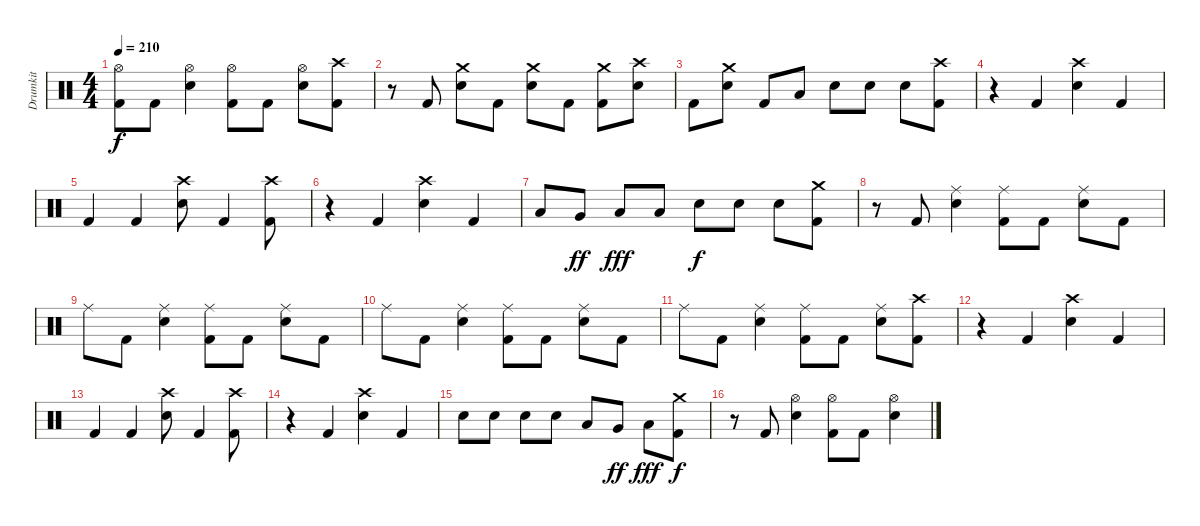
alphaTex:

\track ("Drumkit" "Drumkit") {instrument percussion}
\staff {score}
\articulation defaults
\ts (4 4)
\tempo 210
\clef neutral
\ks c
("Hi-Hat (open)" "Kick (hit) 2").8{dy f} "Kick (hit) 2".8 ("Hi-Hat (open)" "Electric Snare (hit)").4 ("Hi-Hat (open)" "Kick (hit) 2").8 "Kick (hit) 2".8 ("Hi-Hat (open)" "Electric Snare (hit)").8 ("Crash high (hit)" "Kick (hit) 2").8 |
r.8 "Kick (hit) 2".8 ("Crash medium (hit)" "Electric Snare (hit)").8 "Kick (hit) 2".8 ("Crash medium (hit)" "Electric Snare (hit)").8 "Kick (hit) 2".8 ("Crash medium (hit)" "Kick (hit) 2").8 ("Crash high (hit)" "Electric Snare (hit)").8 |
"Kick (hit) 2".8 ("Crash medium (hit)" "Electric Snare (hit)").8 "Kick (hit) 2".8 "Low Tom (hit)".8 "Electric Snare (hit)".8 "Electric Snare (hit)".8 "Electric Snare (hit)".8 ("Crash high (hit)" "Kick (hit) 2").8 |
r.4 "Kick (hit) 2".4 ("Crash high (hit)" "Electric Snare (hit)").4 "Kick (hit) 2".4 |
"Kick (hit) 2".4 "Kick (hit) 2".4 ("Crash high (hit)" "Electric Snare (hit)").8 "Kick (hit) 2".4 ("Crash high (hit)" "Kick (hit) 2").8 |
r.4 "Kick (hit) 2".4 ("Crash high (hit)" "Electric Snare (hit)").4 "Kick (hit) 2".4 |
"Low Tom (hit)".8 "Very Low Tom (hit)".8{dy ff} "Low Floor Tom (hit)".8{dy fff} "Low Floor Tom (hit)".8 "Electric Snare (hit)".8{dy f} "Electric Snare (hit)".8 "Electric Snare (hit)".8 ("Crash medium (hit)" "Kick (hit) 2").8 |
r.8 "Kick (hit) 2".8 ("Ride (middle)" "Electric Snare (hit)").4 ("Ride (middle)" "Kick (hit) 2").8 "Kick (hit) 2".8 ("Ride (middle)" "Electric Snare (hit)").8 "Kick (hit) 2".8 |
"Ride (middle)".8 "Kick (hit) 2".8 ("Ride (middle)" "Electric Snare (hit)").4 ("Ride (middle)" "Kick (hit) 2").8 "Kick (hit) 2".8 ("Ride (middle)" "Electric Snare (hit)").8 "Kick (hit) 2".8 |
"Ride (middle)".8 "Kick (hit) 2".8 ("Ride (middle)" "Electric Snare (hit)").4 ("Ride (middle)" "Kick (hit) 2").8 "Kick (hit) 2".8 ("Ride (middle)" "Electric Snare (hit)").8 "Kick (hit) 2".8 |
"Ride (middle)".8 "Kick (hit) 2".8 ("Ride (middle)" "Electric Snare (hit)").4 ("Ride (middle)" "Kick (hit) 2").8 "Kick (hit) 2".8 ("Ride (middle)" "Electric Snare (hit)").8 ("Crash high (hit)" "Kick (hit) 2").8 |
r.4 "Kick (hit) 2".4 ("Crash high (hit)" "Electric Snare (hit)").4 "Kick (hit) 2".4 |
"Kick (hit) 2".4 "Kick (hit) 2".4 ("Crash high (hit)" "Electric Snare (hit)").8 "Kick (hit) 2".4 ("Crash high (hit)" "Kick (hit) 2").8 |
r.4 "Kick (hit) 2".4 ("Crash high (hit)" "Electric Snare (hit)").4 "Kick (hit) 2".4 |
"Electric Snare (hit)".8 "Electric Snare (hit)".8 "Electric Snare (hit)".8 "Electric Snare (hit)".8 "Low Tom (hit)".8 "Very Low Tom (hit)".8{dy ff} "Low Floor Tom (hit)".8{dy fff} ("Crash medium (hit)" "Kick (hit) 2").8{dy f} |
r.8 "Kick (hit) 2".8 ("Hi-Hat (open)" "Electric Snare (hit)").4 ("Hi-Hat (open)" "Kick (hit) 2").8 "Kick (hit) 2".8 ("Hi-Hat (open)" "Electric Snare (hit)").4
